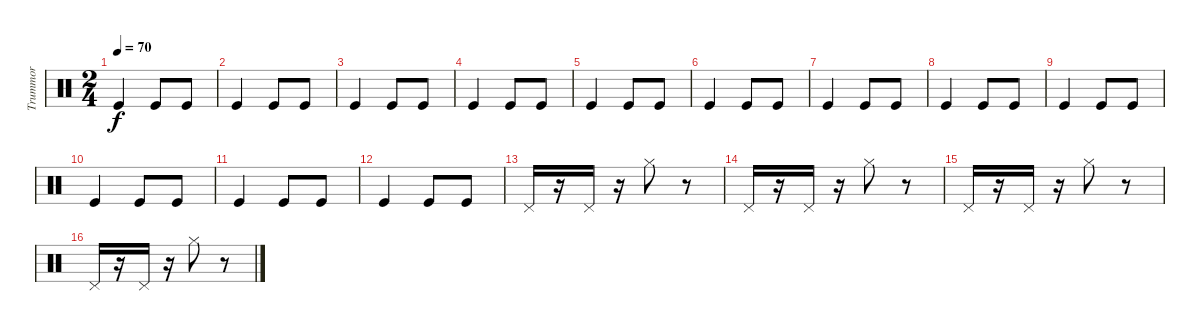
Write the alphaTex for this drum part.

\track ("Trummor" "Trummor") {instrument percussion}
\staff {score}
\articulation defaults
\ts (2 4)
\tempo 70
\clef neutral
\ks c "Kick (hit)".4{dy f} "Kick (hit)".8 "Kick (hit)".8
|
"Kick (hit)".4 "Kick (hit)".8 "Kick (hit)".8 |
"Kick (hit)".4 "Kick (hit)".8 "Kick (hit)".8 |
"Kick (hit)".4 "Kick (hit)".8 "Kick (hit)".8 |
"Kick (hit)".4 "Kick (hit)".8 "Kick (hit)".8 |
"Kick (hit)".4 "Kick (hit)".8 "Kick (hit)".8 |
"Kick (hit)".4 "Kick (hit)".8 "Kick (hit)".8 |
"Kick (hit)".4 "Kick (hit)".8 "Kick (hit)".8 |
"Kick (hit)".4 "Kick (hit)".8 "Kick (hit)".8 |
"Kick (hit)".4 "Kick (hit)".8 "Kick (hit)".8 |
"Kick (hit)".4 "Kick (hit)".8 "Kick (hit)".8 |
"Kick (hit)".4 "Kick (hit)".8 "Kick (hit)".8 |
"Pedal Hi-Hat (hit)".16 r.16 "Pedal Hi-Hat (hit)".16 r.16 "Hi-Hat (closed)".8 r.8 |
"Pedal Hi-Hat (hit)".16 r.16 "Pedal Hi-Hat (hit)".16 r.16 "Hi-Hat (closed)".8 r.8 |
"Pedal Hi-Hat (hit)".16 r.16 "Pedal Hi-Hat (hit)".16 r.16 "Hi-Hat (closed)".8 r.8 |
"Pedal Hi-Hat (hit)".16 r.16 "Pedal Hi-Hat (hit)".16 r.16 "Hi-Hat (closed)".8 r.8
